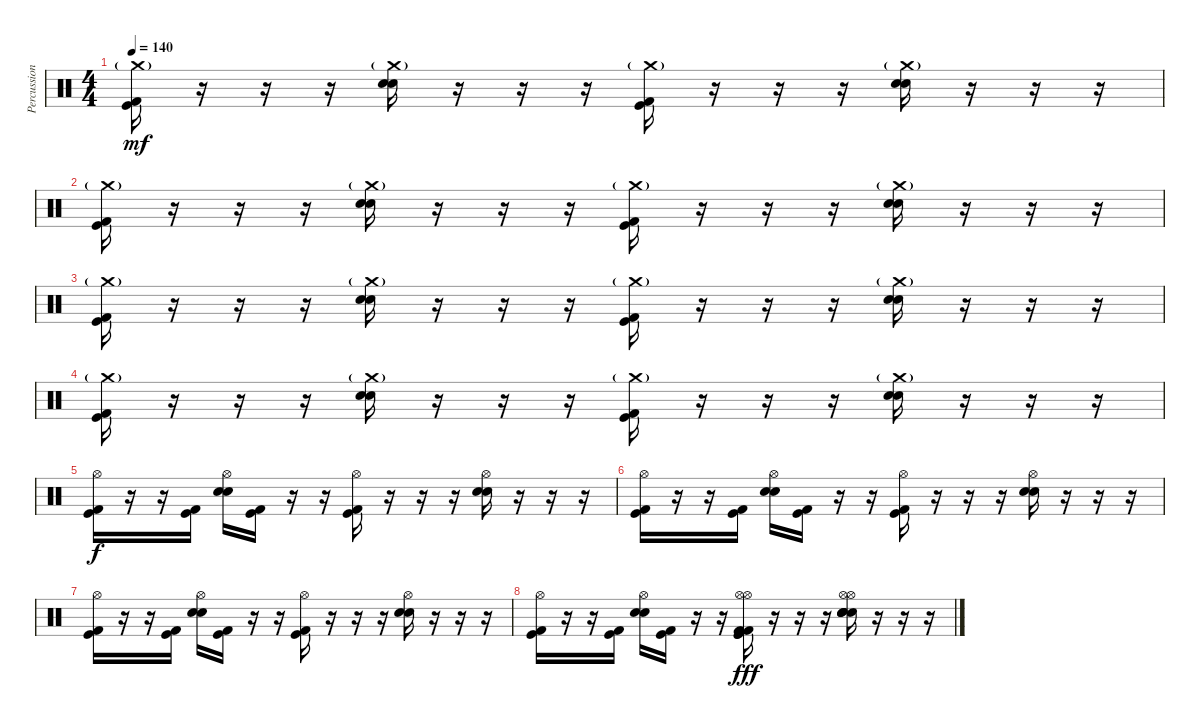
\track ("Percussion" "Percussion") {instrument percussion}
\staff {score}
\articulation defaults
\ts (4 4)
\tempo 140
\clef neutral
\ks c
("Crash medium (hit)"{g} "Kick (hit)" "Kick (hit) 2").16{dy mf} r.16 r.16 r.16 ("Crash medium (hit)"{g} "Electric Snare (hit)" "Electric Snare (hit)").16 r.16 r.16 r.16 ("Crash medium (hit)"{g} "Kick (hit)" "Kick (hit) 2").16 r.16 r.16 r.16 ("Crash medium (hit)"{g} "Electric Snare (hit)" "Electric Snare (hit)").16 r.16 r.16 r.16 |
("Crash medium (hit)"{g} "Kick (hit)" "Kick (hit) 2").16 r.16 r.16 r.16 ("Crash medium (hit)"{g} "Electric Snare (hit)" "Electric Snare (hit)").16 r.16 r.16 r.16 ("Crash medium (hit)"{g} "Kick (hit)" "Kick (hit) 2").16 r.16 r.16 r.16 ("Crash medium (hit)"{g} "Electric Snare (hit)" "Electric Snare (hit)").16 r.16 r.16 r.16 |
("Crash medium (hit)"{g} "Kick (hit)" "Kick (hit) 2").16 r.16 r.16 r.16 ("Crash medium (hit)"{g} "Electric Snare (hit)" "Electric Snare (hit)").16 r.16 r.16 r.16 ("Crash medium (hit)"{g} "Kick (hit)" "Kick (hit) 2").16 r.16 r.16 r.16 ("Crash medium (hit)"{g} "Electric Snare (hit)" "Electric Snare (hit)").16 r.16 r.16 r.16 |
("Crash medium (hit)"{g} "Kick (hit)" "Kick (hit) 2").16 r.16 r.16 r.16 ("Crash medium (hit)"{g} "Electric Snare (hit)" "Electric Snare (hit)").16 r.16 r.16 r.16 ("Crash medium (hit)"{g} "Kick (hit)" "Kick (hit) 2").16 r.16 r.16 r.16 ("Crash medium (hit)"{g} "Electric Snare (hit)" "Electric Snare (hit)").16 r.16 r.16 r.16 |
("Hi-Hat (open)" "Kick (hit)" "Kick (hit) 2").16{dy f} r.16 r.16 ("Kick (hit)" "Kick (hit) 2").16 ("Hi-Hat (open)" "Electric Snare (hit)" "Electric Snare (hit)").16 ("Kick (hit)" "Kick (hit) 2").16 r.16 r.16 ("Hi-Hat (open)" "Kick (hit)" "Kick (hit) 2").16 r.16 r.16 r.16 ("Hi-Hat (open)" "Electric Snare (hit)" "Electric Snare (hit)").16 r.16 r.16 r.16 |
("Hi-Hat (open)" "Kick (hit)" "Kick (hit) 2").16 r.16 r.16 ("Kick (hit)" "Kick (hit) 2").16 ("Hi-Hat (open)" "Electric Snare (hit)" "Electric Snare (hit)").16 ("Kick (hit)" "Kick (hit) 2").16 r.16 r.16 ("Hi-Hat (open)" "Kick (hit)" "Kick (hit) 2").16 r.16 r.16 r.16 ("Hi-Hat (open)" "Electric Snare (hit)" "Electric Snare (hit)").16 r.16 r.16 r.16 |
("Hi-Hat (open)" "Kick (hit)" "Kick (hit) 2").16 r.16 r.16 ("Kick (hit)" "Kick (hit) 2").16 ("Hi-Hat (open)" "Electric Snare (hit)" "Electric Snare (hit)").16 ("Kick (hit)" "Kick (hit) 2").16 r.16 r.16 ("Hi-Hat (open)" "Kick (hit)" "Kick (hit) 2").16 r.16 r.16 r.16 ("Hi-Hat (open)" "Electric Snare (hit)" "Electric Snare (hit)").16 r.16 r.16 r.16 |
("Hi-Hat (open)" "Kick (hit)" "Kick (hit) 2").16 r.16 r.16 ("Kick (hit)" "Kick (hit) 2").16 ("Hi-Hat (open)" "Electric Snare (hit)" "Electric Snare (hit)").16 ("Kick (hit)" "Kick (hit) 2").16 r.16 r.16 ("Hi-Hat (open)" "Hi-Hat (open)" "Kick (hit)" "Kick (hit)" "Kick (hit) 2" "Kick (hit) 2").16{dy fff} r.16 r.16 r.16 ("Hi-Hat (open)" "Hi-Hat (open)" "Electric Snare (hit)" "Electric Snare (hit)" "Electric Snare (hit)" "Electric Snare (hit)").16 r.16 r.16 r.16
